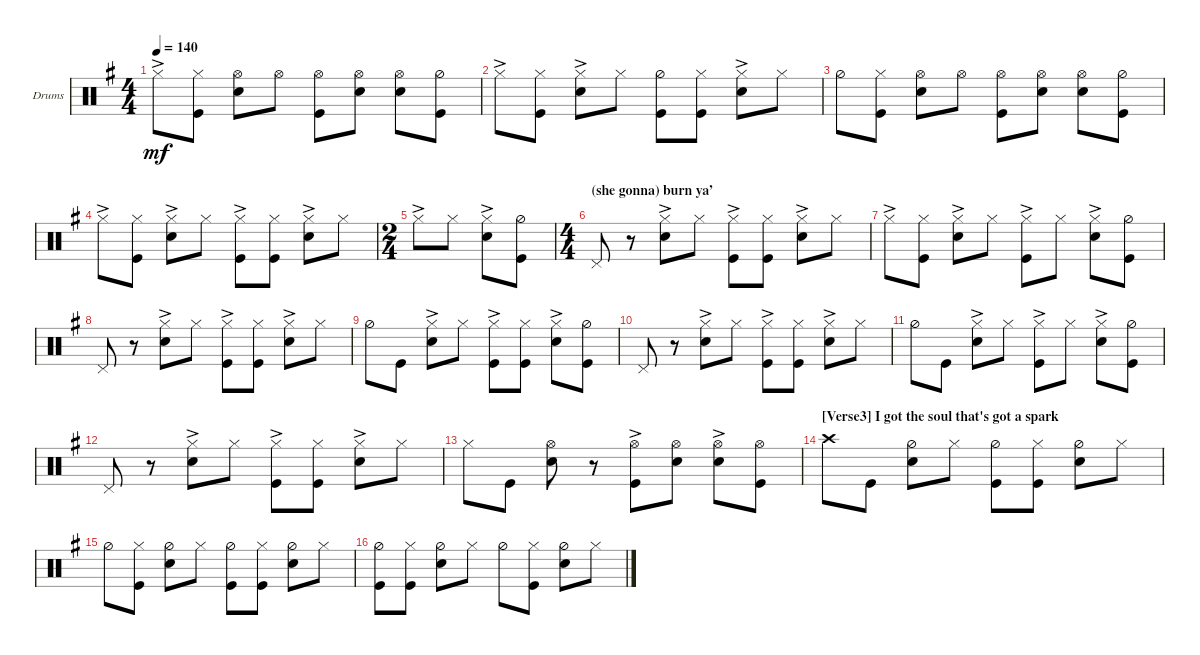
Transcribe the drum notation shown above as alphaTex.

\defaultSystemsLayout 4
\bracketExtendMode groupsimilarinstruments
\firstSystemTrackNameOrientation horizontal
\otherSystemsTrackNameOrientation horizontal
\track ("Drumkit" "Drums") {instrument percussion}
\staff {score}
\articulation defaults
\ts (4 4)
\tempo 140
\clef neutral
\ks g "Hi-Hat (closed)"{ac}.8{dy mf}
("Hi-Hat (closed)" "Kick (hit)").8 ("Hi-Hat (open)" "Snare (hit) 2").8 "Hi-Hat (open)".8 ("Hi-Hat (open)" "Kick (hit)").8 ("Hi-Hat (open)" "Snare (hit) 2").8 ("Hi-Hat (open)" "Snare (hit) 2").8 ("Hi-Hat (half)" "Kick (hit)").8 |
"Hi-Hat (closed)"{ac}.8 ("Hi-Hat (closed)" "Kick (hit)").8 ("Hi-Hat (closed)"{ac} "Snare (hit) 2").8 "Hi-Hat (closed)".8 ("Hi-Hat (half)" "Kick (hit)").8 ("Hi-Hat (closed)" "Kick (hit)").8 ("Hi-Hat (closed)"{ac} "Snare (hit) 2").8 "Hi-Hat (closed)".8 |
"Hi-Hat (half)".8 ("Hi-Hat (closed)" "Kick (hit)").8 ("Hi-Hat (open)" "Snare (hit) 2").8 "Hi-Hat (open)".8 ("Hi-Hat (open)" "Kick (hit)").8 ("Hi-Hat (open)" "Snare (hit) 2").8 ("Hi-Hat (open)" "Snare (hit) 2").8 ("Hi-Hat (half)" "Kick (hit)").8 |
"Hi-Hat (closed)"{ac}.8 ("Hi-Hat (closed)" "Kick (hit)").8 ("Hi-Hat (closed)"{ac} "Snare (hit) 2").8 "Hi-Hat (closed)".8 ("Hi-Hat (closed)"{ac} "Kick (hit)").8 ("Hi-Hat (closed)" "Kick (hit)").8 ("Hi-Hat (closed)"{ac} "Snare (hit) 2").8 "Hi-Hat (closed)".8 |
\ts (2 4)
"Hi-Hat (closed)"{ac}.8 "Hi-Hat (closed)".8 ("Hi-Hat (closed)"{ac} "Snare (hit) 2").8 ("Hi-Hat (half)" "Kick (hit)").8 |
\ts (4 4)
\section ("" "(she gonna) burn ya’")
"Pedal Hi-Hat (hit)".8 r.8 ("Hi-Hat (closed)"{ac} "Snare (hit) 2").8 "Hi-Hat (closed)".8 ("Hi-Hat (closed)"{ac} "Kick (hit)").8 ("Hi-Hat (closed)" "Kick (hit)").8 ("Hi-Hat (closed)"{ac} "Snare (hit) 2").8 "Hi-Hat (closed)".8 |
"Hi-Hat (closed)"{ac}.8 ("Hi-Hat (closed)" "Kick (hit)").8 ("Hi-Hat (closed)"{ac} "Snare (hit) 2").8 "Hi-Hat (closed)".8 ("Hi-Hat (closed)"{ac} "Kick (hit)").8 "Hi-Hat (closed)".8 ("Hi-Hat (closed)"{ac} "Snare (hit) 2").8 ("Hi-Hat (half)" "Kick (hit)").8 |
"Pedal Hi-Hat (hit)".8 r.8 ("Hi-Hat (closed)"{ac} "Snare (hit) 2").8 "Hi-Hat (closed)".8 ("Hi-Hat (closed)"{ac} "Kick (hit)").8 ("Hi-Hat (closed)" "Kick (hit)").8 ("Hi-Hat (closed)"{ac} "Snare (hit) 2").8 "Hi-Hat (closed)".8 |
"Hi-Hat (half)".8 "Kick (hit)".8 ("Hi-Hat (closed)"{ac} "Snare (hit) 2").8 "Hi-Hat (closed)".8 ("Hi-Hat (closed)"{ac} "Kick (hit)").8 ("Hi-Hat (closed)" "Kick (hit)").8 ("Hi-Hat (closed)"{ac} "Snare (hit) 2").8 ("Hi-Hat (half)" "Kick (hit)").8 |
"Pedal Hi-Hat (hit)".8 r.8 ("Hi-Hat (closed)"{ac} "Snare (hit) 2").8 "Hi-Hat (closed)".8 ("Hi-Hat (closed)"{ac} "Kick (hit)").8 ("Hi-Hat (closed)" "Kick (hit)").8 ("Hi-Hat (closed)"{ac} "Snare (hit) 2").8 "Hi-Hat (closed)".8 |
"Hi-Hat (half)".8 "Kick (hit)".8 ("Hi-Hat (closed)"{ac} "Snare (hit) 2").8 "Hi-Hat (closed)".8 ("Hi-Hat (closed)"{ac} "Kick (hit)").8 "Hi-Hat (closed)".8 ("Hi-Hat (closed)"{ac} "Snare (hit) 2").8 ("Hi-Hat (half)" "Kick (hit)").8 |
"Pedal Hi-Hat (hit)".8 r.8 ("Hi-Hat (closed)"{ac} "Snare (hit) 2").8 "Hi-Hat (closed)".8 ("Hi-Hat (closed)"{ac} "Kick (hit)").8 ("Hi-Hat (closed)" "Kick (hit)").8 ("Hi-Hat (closed)"{ac} "Snare (hit) 2").8 "Hi-Hat (closed)".8 |
"Hi-Hat (closed)".8 "Kick (hit)".8 ("Hi-Hat (open)" "Snare (hit) 2").8 r.8 ("Hi-Hat (open)"{ac} "Kick (hit)").8 ("Hi-Hat (open)" "Snare (hit) 2").8 ("Hi-Hat (open)"{ac} "Snare (hit) 2").8 ("Hi-Hat (open)" "Kick (hit)").8 |
\section ("" "[Verse3] I got the soul that's got a spark")
"Crash high (hit)".8 "Kick (hit)".8 ("Hi-Hat (half)" "Snare (hit) 2").8 "Hi-Hat (closed)".8 ("Hi-Hat (half)" "Kick (hit)").8 ("Kick (hit)" "Hi-Hat (closed)").8 ("Hi-Hat (half)" "Snare (hit) 2").8 "Hi-Hat (closed)".8 |
"Hi-Hat (half)".8 ("Hi-Hat (closed)" "Kick (hit)").8 ("Hi-Hat (half)" "Snare (hit) 2").8 "Hi-Hat (closed)".8 ("Hi-Hat (half)" "Kick (hit)").8 ("Kick (hit)" "Hi-Hat (closed)").8 ("Hi-Hat (half)" "Snare (hit) 2").8 "Hi-Hat (closed)".8 |
("Hi-Hat (half)" "Kick (hit)").8 ("Hi-Hat (closed)" "Kick (hit)").8 ("Hi-Hat (half)" "Snare (hit) 2").8 "Hi-Hat (closed)".8 "Hi-Hat (half)".8 ("Kick (hit)" "Hi-Hat (closed)").8 ("Hi-Hat (half)" "Snare (hit) 2").8 "Hi-Hat (closed)".8
